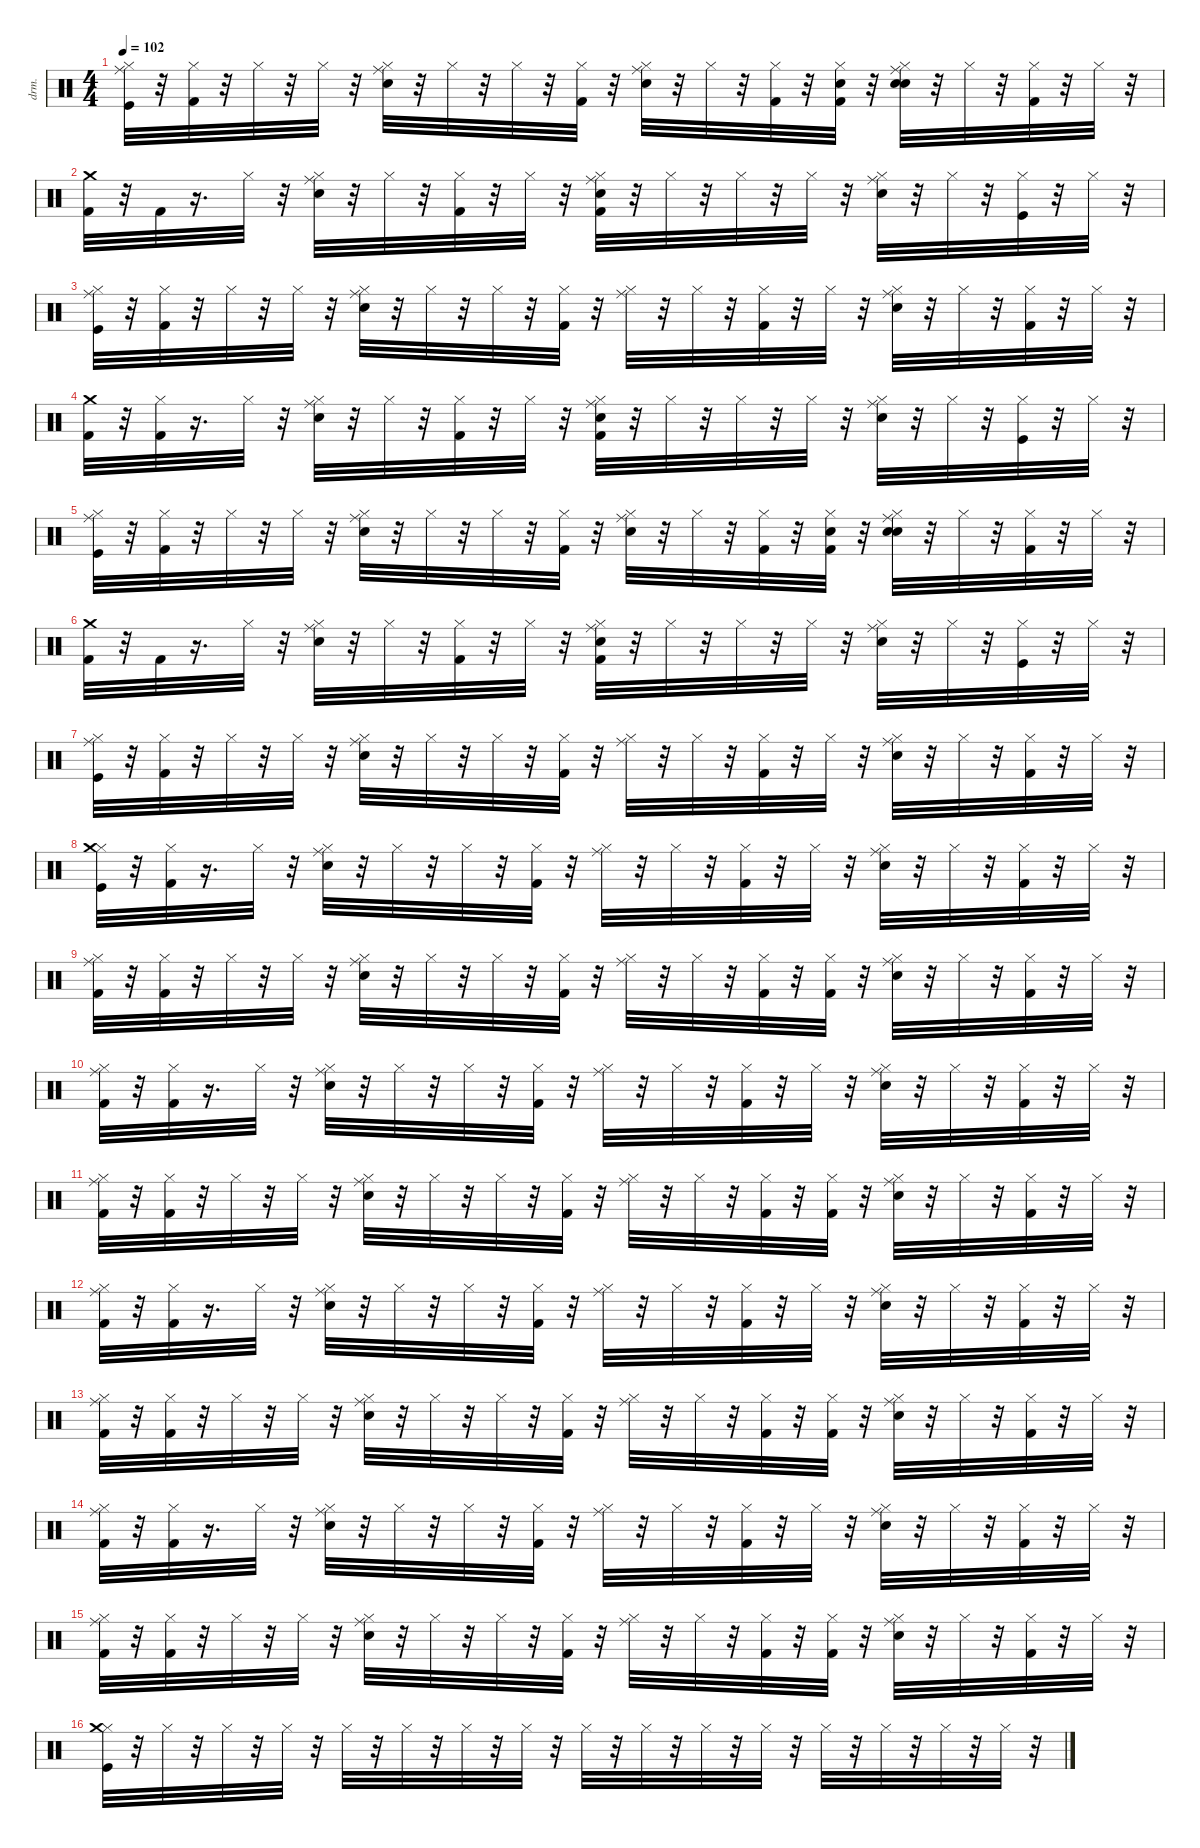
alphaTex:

\defaultSystemsLayout 4
\hideDynamics
\bracketExtendMode nobrackets
\otherSystemsTrackNameOrientation horizontal
\track ("Nick Mason / Gary Wallis" "drm.") {instrument percussion}
\staff {score}
\articulation defaults
\ts (4 4)
\tempo 102
\clef neutral
\ks c
("Kick (hit)" "Hi-Hat (closed)" "Ride (middle)").32{dy fff beam Down} r.32{beam Down} ("Hi-Hat (closed)" "Kick (hit) 2").32{dy pp beam Down} r.32{beam Down} "Hi-Hat (closed)".32{dy ppp beam Down} r.32{beam Down} "Hi-Hat (closed)".32{dy p beam Down} r.32{beam Down} ("Snare (hit) 2" "Hi-Hat (closed)" "Ride (middle)").32{beam Down} r.32{beam Down} "Hi-Hat (closed)".32{dy ppp beam Down} r.32{beam Down} "Hi-Hat (closed)".32{dy mp beam Down} r.32{beam Down} ("Hi-Hat (closed)" "Kick (hit) 2").32{dy ppp beam Down} r.32{beam Down} ("Snare (hit) 2" "Hi-Hat (closed)" "Ride (middle)").32{dy ff beam Down} r.32{beam Down} "Hi-Hat (closed)".32{dy pp beam Down} r.32{beam Down} ("Hi-Hat (closed)" "Kick (hit) 2").32{dy ppp beam Down} r.32{beam Down} ("Snare (hit) 2" "Hi-Hat (closed)" "Kick (hit) 2").32{dy mp beam Down} r.32{beam Down} ("Snare (hit) 2" "Snare (hit) 2" "Hi-Hat (closed)" "Ride (middle)").32{dy p beam Down} r.32{beam Down} "Hi-Hat (closed)".32{dy ppp beam Down} r.32{beam Down} ("Kick (hit) 2" "Hi-Hat (closed)").32{dy f beam Down} r.32{beam Down} "Hi-Hat (closed)".32{dy p beam Down} r.32{beam Down} |
("Kick (hit) 2" "Crash medium (hit)").32{dy ff beam Down} r.32{beam Down} "Kick (hit) 2".32{dy mf beam Down} r.16{d beam Down} "Hi-Hat (closed)".32{dy pp beam Down} r.32{beam Down} ("Snare (hit) 2" "Hi-Hat (closed)" "Ride (middle)").32{dy p beam Down} r.32{beam Down} "Hi-Hat (closed)".32{dy pp beam Down} r.32{beam Down} ("Kick (hit) 2" "Hi-Hat (closed)").32{dy ff beam Down} r.32{beam Down} "Hi-Hat (closed)".32{dy ppp beam Down} r.32{beam Down} ("Kick (hit) 2" "Snare (hit) 2" "Hi-Hat (closed)" "Ride (middle)").32{dy f beam Down} r.32{beam Down} "Hi-Hat (closed)".32{dy ppp beam Down} r.32{beam Down} "Hi-Hat (closed)".32{dy pp beam Down} r.32{beam Down} "Hi-Hat (closed)".32{beam Down} r.32{beam Down} ("Snare (hit) 2" "Hi-Hat (closed)" "Ride (middle)").32{dy p beam Down} r.32{beam Down} "Hi-Hat (closed)".32{dy ppp beam Down} r.32{beam Down} ("Kick (hit)" "Hi-Hat (closed)").32{dy f beam Down} r.32{beam Down} "Hi-Hat (closed)".32{dy mp beam Down} r.32{beam Down} |
("Kick (hit)" "Hi-Hat (closed)" "Ride (middle)").32{dy fff beam Down} r.32{beam Down} ("Hi-Hat (closed)" "Kick (hit) 2").32{dy pp beam Down} r.32{beam Down} "Hi-Hat (closed)".32{dy ppp beam Down} r.32{beam Down} "Hi-Hat (closed)".32{dy p beam Down} r.32{beam Down} ("Snare (hit) 2" "Hi-Hat (closed)" "Ride (middle)").32{beam Down} r.32{beam Down} "Hi-Hat (closed)".32{dy ppp beam Down} r.32{beam Down} "Hi-Hat (closed)".32{dy mp beam Down} r.32{beam Down} ("Hi-Hat (closed)" "Kick (hit) 2").32{dy ppp beam Down} r.32{beam Down} ("Hi-Hat (closed)" "Ride (middle)").32{dy mf beam Down} r.32{beam Down} "Hi-Hat (closed)".32{dy pp beam Down} r.32{beam Down} ("Hi-Hat (closed)" "Kick (hit) 2").32{dy ppp beam Down} r.32{beam Down} "Hi-Hat (closed)".32{dy p beam Down} r.32{beam Down} ("Snare (hit) 2" "Hi-Hat (closed)" "Ride (middle)").32{beam Down} r.32{beam Down} "Hi-Hat (closed)".32{dy ppp beam Down} r.32{beam Down} ("Kick (hit) 2" "Hi-Hat (closed)").32{dy f beam Down} r.32{beam Down} "Hi-Hat (closed)".32{dy p beam Down} r.32{beam Down} |
("Kick (hit) 2" "Crash medium (hit)").32{dy ff beam Down} r.32{beam Down} ("Hi-Hat (closed)" "Kick (hit) 2").32{dy mp beam Down} r.16{d beam Down} "Hi-Hat (closed)".32{dy pp beam Down} r.32{beam Down} ("Snare (hit) 2" "Hi-Hat (closed)" "Ride (middle)").32{dy p beam Down} r.32{beam Down} "Hi-Hat (closed)".32{dy pp beam Down} r.32{beam Down} ("Kick (hit) 2" "Hi-Hat (closed)").32{dy f beam Down} r.32{beam Down} "Hi-Hat (closed)".32{dy ppp beam Down} r.32{beam Down} ("Kick (hit) 2" "Snare (hit) 2" "Hi-Hat (closed)" "Ride (middle)").32{dy f beam Down} r.32{beam Down} "Hi-Hat (closed)".32{dy ppp beam Down} r.32{beam Down} "Hi-Hat (closed)".32{dy pp beam Down} r.32{beam Down} "Hi-Hat (closed)".32{beam Down} r.32{beam Down} ("Snare (hit) 2" "Hi-Hat (closed)" "Ride (middle)").32{dy p beam Down} r.32{beam Down} "Hi-Hat (closed)".32{dy ppp beam Down} r.32{beam Down} ("Kick (hit)" "Hi-Hat (closed)").32{dy f beam Down} r.32{beam Down} "Hi-Hat (closed)".32{dy mp beam Down} r.32{beam Down} |
("Kick (hit)" "Hi-Hat (closed)" "Ride (middle)").32{dy fff beam Down} r.32{beam Down} ("Hi-Hat (closed)" "Kick (hit) 2").32{dy pp beam Down} r.32{beam Down} "Hi-Hat (closed)".32{dy ppp beam Down} r.32{beam Down} "Hi-Hat (closed)".32{dy p beam Down} r.32{beam Down} ("Snare (hit) 2" "Hi-Hat (closed)" "Ride (middle)").32{beam Down} r.32{beam Down} "Hi-Hat (closed)".32{dy ppp beam Down} r.32{beam Down} "Hi-Hat (closed)".32{dy mp beam Down} r.32{beam Down} ("Hi-Hat (closed)" "Kick (hit) 2").32{dy ppp beam Down} r.32{beam Down} ("Snare (hit) 2" "Hi-Hat (closed)" "Ride (middle)").32{dy ff beam Down} r.32{beam Down} "Hi-Hat (closed)".32{dy pp beam Down} r.32{beam Down} ("Hi-Hat (closed)" "Kick (hit) 2").32{dy ppp beam Down} r.32{beam Down} ("Snare (hit) 2" "Hi-Hat (closed)" "Kick (hit) 2").32{dy mp beam Down} r.32{beam Down} ("Snare (hit) 2" "Snare (hit) 2" "Hi-Hat (closed)" "Ride (middle)").32{dy p beam Down} r.32{beam Down} "Hi-Hat (closed)".32{dy ppp beam Down} r.32{beam Down} ("Kick (hit) 2" "Hi-Hat (closed)").32{dy f beam Down} r.32{beam Down} "Hi-Hat (closed)".32{dy p beam Down} r.32{beam Down} |
("Kick (hit) 2" "Crash medium (hit)").32{dy ff beam Down} r.32{beam Down} "Kick (hit) 2".32{dy mf beam Down} r.16{d beam Down} "Hi-Hat (closed)".32{dy pp beam Down} r.32{beam Down} ("Snare (hit) 2" "Hi-Hat (closed)" "Ride (middle)").32{dy p beam Down} r.32{beam Down} "Hi-Hat (closed)".32{dy pp beam Down} r.32{beam Down} ("Kick (hit) 2" "Hi-Hat (closed)").32{dy ff beam Down} r.32{beam Down} "Hi-Hat (closed)".32{dy ppp beam Down} r.32{beam Down} ("Kick (hit) 2" "Snare (hit) 2" "Hi-Hat (closed)" "Ride (middle)").32{dy f beam Down} r.32{beam Down} "Hi-Hat (closed)".32{dy ppp beam Down} r.32{beam Down} "Hi-Hat (closed)".32{dy pp beam Down} r.32{beam Down} "Hi-Hat (closed)".32{beam Down} r.32{beam Down} ("Snare (hit) 2" "Hi-Hat (closed)" "Ride (middle)").32{dy p beam Down} r.32{beam Down} "Hi-Hat (closed)".32{dy ppp beam Down} r.32{beam Down} ("Kick (hit)" "Hi-Hat (closed)").32{dy f beam Down} r.32{beam Down} "Hi-Hat (closed)".32{dy mp beam Down} r.32{beam Down} |
("Kick (hit)" "Hi-Hat (closed)" "Ride (middle)").32{dy fff beam Down} r.32{beam Down} ("Hi-Hat (closed)" "Kick (hit) 2").32{dy pp beam Down} r.32{beam Down} "Hi-Hat (closed)".32{dy ppp beam Down} r.32{beam Down} "Hi-Hat (closed)".32{dy p beam Down} r.32{beam Down} ("Snare (hit) 2" "Hi-Hat (closed)" "Ride (middle)").32{beam Down} r.32{beam Down} "Hi-Hat (closed)".32{dy ppp beam Down} r.32{beam Down} "Hi-Hat (closed)".32{dy mp beam Down} r.32{beam Down} ("Hi-Hat (closed)" "Kick (hit) 2").32{dy ppp beam Down} r.32{beam Down} ("Hi-Hat (closed)" "Ride (middle)").32{dy mf beam Down} r.32{beam Down} "Hi-Hat (closed)".32{dy pp beam Down} r.32{beam Down} ("Hi-Hat (closed)" "Kick (hit) 2").32{dy ppp beam Down} r.32{beam Down} "Hi-Hat (closed)".32{dy p beam Down} r.32{beam Down} ("Snare (hit) 2" "Hi-Hat (closed)" "Ride (middle)").32{beam Down} r.32{beam Down} "Hi-Hat (closed)".32{dy ppp beam Down} r.32{beam Down} ("Kick (hit) 2" "Hi-Hat (closed)").32{dy f beam Down} r.32{beam Down} "Hi-Hat (closed)".32{dy p beam Down} r.32{beam Down} |
("Kick (hit)" "Hi-Hat (closed)" "Crash medium (hit)").32{dy ff beam Down} r.32{beam Down} ("Hi-Hat (closed)" "Kick (hit) 2").32{dy mp beam Down} r.16{d beam Down} "Hi-Hat (closed)".32{dy pp beam Down} r.32{beam Down} ("Snare (hit) 2" "Hi-Hat (closed)" "Ride (middle)").32{dy p beam Down} r.32{beam Down} "Hi-Hat (closed)".32{dy pp beam Down} r.32{beam Down} "Hi-Hat (closed)".32{dy mp beam Down} r.32{beam Down} ("Hi-Hat (closed)" "Kick (hit) 2").32{dy ppp beam Down} r.32{beam Down} ("Hi-Hat (closed)" "Ride (middle)").32{dy mf beam Down} r.32{beam Down} "Hi-Hat (closed)".32{dy ppp beam Down} r.32{beam Down} ("Hi-Hat (closed)" "Kick (hit) 2").32{dy pp beam Down} r.32{beam Down} "Hi-Hat (closed)".32{beam Down} r.32{beam Down} ("Snare (hit) 2" "Hi-Hat (closed)" "Ride (middle)").32{dy p beam Down} r.32{beam Down} "Hi-Hat (closed)".32{dy ppp beam Down} r.32{beam Down} ("Kick (hit) 2" "Hi-Hat (closed)").32{dy f beam Down} r.32{beam Down} "Hi-Hat (closed)".32{dy mp beam Down} r.32{beam Down} |
("Kick (hit) 2" "Hi-Hat (closed)" "Ride (middle)").32{dy ff beam Down} r.32{beam Down} ("Hi-Hat (closed)" "Kick (hit) 2").32{dy pp beam Down} r.32{beam Down} "Hi-Hat (closed)".32{dy ppp beam Down} r.32{beam Down} "Hi-Hat (closed)".32{dy p beam Down} r.32{beam Down} ("Snare (hit) 2" "Hi-Hat (closed)" "Ride (middle)").32{beam Down} r.32{beam Down} "Hi-Hat (closed)".32{dy ppp beam Down} r.32{beam Down} "Hi-Hat (closed)".32{dy mp beam Down} r.32{beam Down} ("Hi-Hat (closed)" "Kick (hit) 2").32{dy ppp beam Down} r.32{beam Down} ("Hi-Hat (closed)" "Ride (middle)").32{dy mf beam Down} r.32{beam Down} "Hi-Hat (closed)".32{dy pp beam Down} r.32{beam Down} ("Hi-Hat (closed)" "Kick (hit) 2").32{dy ppp beam Down} r.32{beam Down} ("Hi-Hat (closed)" "Kick (hit) 2").32{dy p beam Down} r.32{beam Down} ("Snare (hit) 2" "Hi-Hat (closed)" "Ride (middle)").32{beam Down} r.32{beam Down} "Hi-Hat (closed)".32{dy ppp beam Down} r.32{beam Down} ("Kick (hit) 2" "Hi-Hat (closed)").32{dy f beam Down} r.32{beam Down} "Hi-Hat (closed)".32{dy p beam Down} r.32{beam Down} |
("Kick (hit) 2" "Hi-Hat (closed)" "Ride (middle)").32{dy ff beam Down} r.32{beam Down} ("Hi-Hat (closed)" "Kick (hit) 2").32{dy mp beam Down} r.16{d beam Down} "Hi-Hat (closed)".32{dy pp beam Down} r.32{beam Down} ("Snare (hit) 2" "Hi-Hat (closed)" "Ride (middle)").32{dy p beam Down} r.32{beam Down} "Hi-Hat (closed)".32{dy pp beam Down} r.32{beam Down} "Hi-Hat (closed)".32{dy mp beam Down} r.32{beam Down} ("Hi-Hat (closed)" "Kick (hit) 2").32{dy ppp beam Down} r.32{beam Down} ("Hi-Hat (closed)" "Ride (middle)").32{dy mf beam Down} r.32{beam Down} "Hi-Hat (closed)".32{dy ppp beam Down} r.32{beam Down} ("Hi-Hat (closed)" "Kick (hit) 2").32{dy pp beam Down} r.32{beam Down} "Hi-Hat (closed)".32{beam Down} r.32{beam Down} ("Snare (hit) 2" "Hi-Hat (closed)" "Ride (middle)").32{dy p beam Down} r.32{beam Down} "Hi-Hat (closed)".32{dy ppp beam Down} r.32{beam Down} ("Kick (hit) 2" "Hi-Hat (closed)").32{dy f beam Down} r.32{beam Down} "Hi-Hat (closed)".32{dy mp beam Down} r.32{beam Down} |
("Kick (hit) 2" "Hi-Hat (closed)" "Ride (middle)").32{dy ff beam Down} r.32{beam Down} ("Hi-Hat (closed)" "Kick (hit) 2").32{dy pp beam Down} r.32{beam Down} "Hi-Hat (closed)".32{dy ppp beam Down} r.32{beam Down} "Hi-Hat (closed)".32{dy p beam Down} r.32{beam Down} ("Snare (hit) 2" "Hi-Hat (closed)" "Ride (middle)").32{beam Down} r.32{beam Down} "Hi-Hat (closed)".32{dy ppp beam Down} r.32{beam Down} "Hi-Hat (closed)".32{dy mp beam Down} r.32{beam Down} ("Hi-Hat (closed)" "Kick (hit) 2").32{dy ppp beam Down} r.32{beam Down} ("Hi-Hat (closed)" "Ride (middle)").32{dy mf beam Down} r.32{beam Down} "Hi-Hat (closed)".32{dy pp beam Down} r.32{beam Down} ("Hi-Hat (closed)" "Kick (hit) 2").32{dy ppp beam Down} r.32{beam Down} ("Hi-Hat (closed)" "Kick (hit) 2").32{dy p beam Down} r.32{beam Down} ("Snare (hit) 2" "Hi-Hat (closed)" "Ride (middle)").32{beam Down} r.32{beam Down} "Hi-Hat (closed)".32{dy ppp beam Down} r.32{beam Down} ("Kick (hit) 2" "Hi-Hat (closed)").32{dy f beam Down} r.32{beam Down} "Hi-Hat (closed)".32{dy p beam Down} r.32{beam Down} |
("Kick (hit) 2" "Hi-Hat (closed)" "Ride (middle)").32{dy ff beam Down} r.32{beam Down} ("Hi-Hat (closed)" "Kick (hit) 2").32{dy mp beam Down} r.16{d beam Down} "Hi-Hat (closed)".32{dy pp beam Down} r.32{beam Down} ("Snare (hit) 2" "Hi-Hat (closed)" "Ride (middle)").32{dy p beam Down} r.32{beam Down} "Hi-Hat (closed)".32{dy pp beam Down} r.32{beam Down} "Hi-Hat (closed)".32{dy mp beam Down} r.32{beam Down} ("Hi-Hat (closed)" "Kick (hit) 2").32{dy ppp beam Down} r.32{beam Down} ("Hi-Hat (closed)" "Ride (middle)").32{dy mf beam Down} r.32{beam Down} "Hi-Hat (closed)".32{dy ppp beam Down} r.32{beam Down} ("Hi-Hat (closed)" "Kick (hit) 2").32{dy pp beam Down} r.32{beam Down} "Hi-Hat (closed)".32{beam Down} r.32{beam Down} ("Snare (hit) 2" "Hi-Hat (closed)" "Ride (middle)").32{dy p beam Down} r.32{beam Down} "Hi-Hat (closed)".32{dy ppp beam Down} r.32{beam Down} ("Kick (hit) 2" "Hi-Hat (closed)").32{dy f beam Down} r.32{beam Down} "Hi-Hat (closed)".32{dy mp beam Down} r.32{beam Down} |
("Kick (hit) 2" "Hi-Hat (closed)" "Ride (middle)").32{dy ff beam Down} r.32{beam Down} ("Hi-Hat (closed)" "Kick (hit) 2").32{dy pp beam Down} r.32{beam Down} "Hi-Hat (closed)".32{dy ppp beam Down} r.32{beam Down} "Hi-Hat (closed)".32{dy p beam Down} r.32{beam Down} ("Snare (hit) 2" "Hi-Hat (closed)" "Ride (middle)").32{beam Down} r.32{beam Down} "Hi-Hat (closed)".32{dy ppp beam Down} r.32{beam Down} "Hi-Hat (closed)".32{dy mp beam Down} r.32{beam Down} ("Hi-Hat (closed)" "Kick (hit) 2").32{dy ppp beam Down} r.32{beam Down} ("Hi-Hat (closed)" "Ride (middle)").32{dy mf beam Down} r.32{beam Down} "Hi-Hat (closed)".32{dy pp beam Down} r.32{beam Down} ("Hi-Hat (closed)" "Kick (hit) 2").32{dy ppp beam Down} r.32{beam Down} ("Hi-Hat (closed)" "Kick (hit) 2").32{dy p beam Down} r.32{beam Down} ("Snare (hit) 2" "Hi-Hat (closed)" "Ride (middle)").32{beam Down} r.32{beam Down} "Hi-Hat (closed)".32{dy ppp beam Down} r.32{beam Down} ("Kick (hit) 2" "Hi-Hat (closed)").32{dy f beam Down} r.32{beam Down} "Hi-Hat (closed)".32{dy p beam Down} r.32{beam Down} |
("Kick (hit) 2" "Hi-Hat (closed)" "Ride (middle)").32{dy ff beam Down} r.32{beam Down} ("Hi-Hat (closed)" "Kick (hit) 2").32{dy mp beam Down} r.16{d beam Down} "Hi-Hat (closed)".32{dy pp beam Down} r.32{beam Down} ("Snare (hit) 2" "Hi-Hat (closed)" "Ride (middle)").32{dy p beam Down} r.32{beam Down} "Hi-Hat (closed)".32{dy pp beam Down} r.32{beam Down} "Hi-Hat (closed)".32{dy mp beam Down} r.32{beam Down} ("Hi-Hat (closed)" "Kick (hit) 2").32{dy ppp beam Down} r.32{beam Down} ("Hi-Hat (closed)" "Ride (middle)").32{dy mf beam Down} r.32{beam Down} "Hi-Hat (closed)".32{dy ppp beam Down} r.32{beam Down} ("Hi-Hat (closed)" "Kick (hit) 2").32{dy pp beam Down} r.32{beam Down} "Hi-Hat (closed)".32{beam Down} r.32{beam Down} ("Snare (hit) 2" "Hi-Hat (closed)" "Ride (middle)").32{dy p beam Down} r.32{beam Down} "Hi-Hat (closed)".32{dy ppp beam Down} r.32{beam Down} ("Kick (hit) 2" "Hi-Hat (closed)").32{dy f beam Down} r.32{beam Down} "Hi-Hat (closed)".32{dy mp beam Down} r.32{beam Down} |
("Kick (hit) 2" "Hi-Hat (closed)" "Ride (middle)").32{dy ff beam Down} r.32{beam Down} ("Hi-Hat (closed)" "Kick (hit) 2").32{dy pp beam Down} r.32{beam Down} "Hi-Hat (closed)".32{dy ppp beam Down} r.32{beam Down} "Hi-Hat (closed)".32{dy p beam Down} r.32{beam Down} ("Snare (hit) 2" "Hi-Hat (closed)" "Ride (middle)").32{beam Down} r.32{beam Down} "Hi-Hat (closed)".32{dy ppp beam Down} r.32{beam Down} "Hi-Hat (closed)".32{dy mp beam Down} r.32{beam Down} ("Hi-Hat (closed)" "Kick (hit) 2").32{dy ppp beam Down} r.32{beam Down} ("Hi-Hat (closed)" "Ride (middle)").32{dy mf beam Down} r.32{beam Down} "Hi-Hat (closed)".32{dy pp beam Down} r.32{beam Down} ("Hi-Hat (closed)" "Kick (hit) 2").32{dy ppp beam Down} r.32{beam Down} ("Hi-Hat (closed)" "Kick (hit) 2").32{dy p beam Down} r.32{beam Down} ("Snare (hit) 2" "Hi-Hat (closed)" "Ride (middle)").32{beam Down} r.32{beam Down} "Hi-Hat (closed)".32{dy ppp beam Down} r.32{beam Down} ("Kick (hit) 2" "Hi-Hat (closed)").32{dy f beam Down} r.32{beam Down} "Hi-Hat (closed)".32{dy p beam Down} r.32{beam Down} |
("Kick (hit)" "Hi-Hat (closed)" "Crash medium (hit)").32{dy ff beam Down} r.32{beam Down} "Hi-Hat (closed)".32{dy mp beam Down} r.32{beam Down} "Hi-Hat (closed)".32{beam Down} r.32{beam Down} "Hi-Hat (closed)".32{dy p beam Down} r.32{beam Down} "Hi-Hat (closed)".32{beam Down} r.32{beam Down} "Hi-Hat (closed)".32{beam Down} r.32{beam Down} "Hi-Hat (closed)".32{beam Down} r.32{beam Down} "Hi-Hat (closed)".32{dy pp beam Down} r.32{beam Down} "Hi-Hat (closed)".32{beam Down} r.32{beam Down} "Hi-Hat (closed)".32{beam Down} r.32{beam Down} "Hi-Hat (closed)".32{beam Down} r.32{beam Down} "Hi-Hat (closed)".32{dy ppp beam Down} r.32{beam Down} "Hi-Hat (closed)".32{beam Down} r.32{beam Down} "Hi-Hat (closed)".32{beam Down} r.32{beam Down} "Hi-Hat (closed)".32{beam Down} r.32{beam Down} "Hi-Hat (closed)".32{beam Down} r.32{beam Down}
